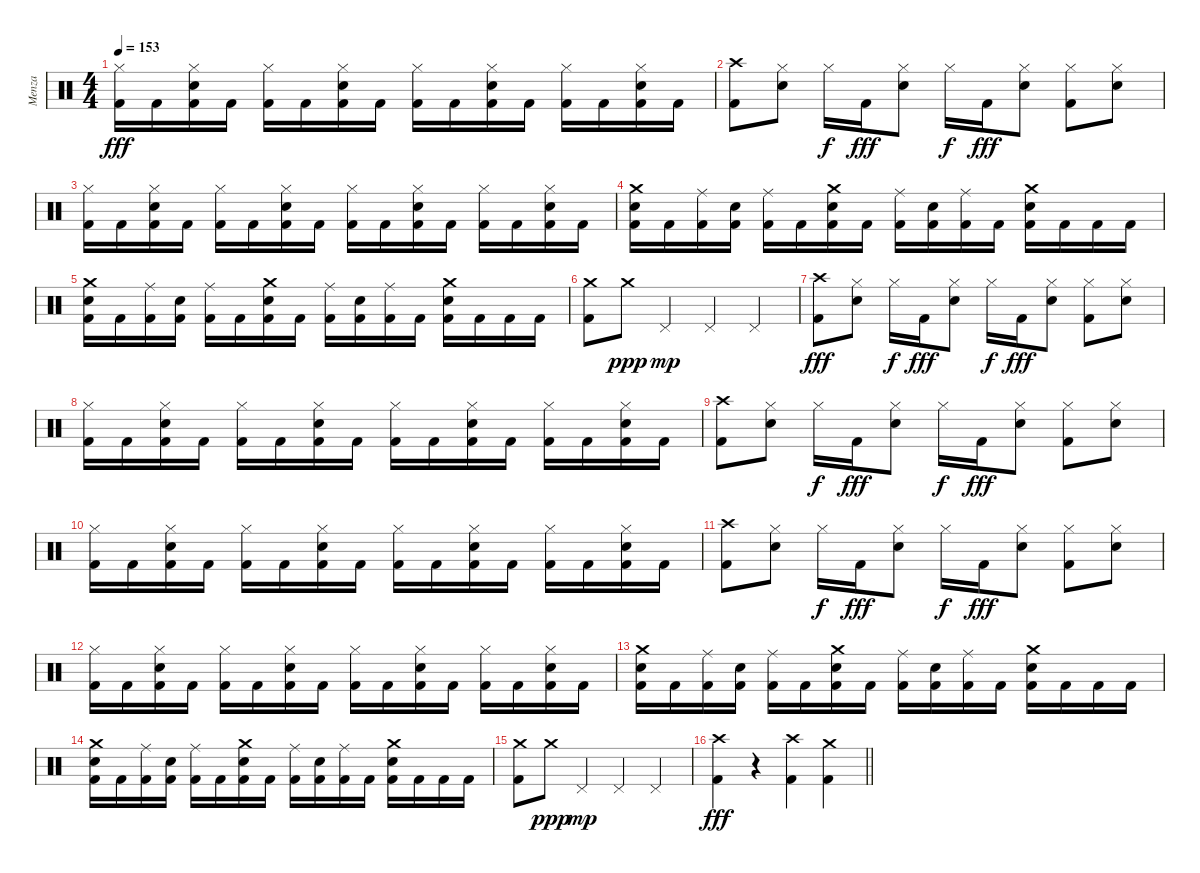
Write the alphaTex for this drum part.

\track ("Menza" "Menza") {instrument percussion}
\staff {score}
\articulation defaults
\ts (4 4)
\tempo 153
\clef neutral
\ks c
("Hi-Hat (closed)" "Kick (hit) 2").16{dy fff} "Kick (hit) 2".16 ("Hi-Hat (closed)" "Snare (hit) 2" "Kick (hit) 2").16 "Kick (hit) 2".16 ("Hi-Hat (closed)" "Kick (hit) 2").16 "Kick (hit) 2".16 ("Hi-Hat (closed)" "Snare (hit) 2" "Kick (hit) 2").16 "Kick (hit) 2".16 ("Hi-Hat (closed)" "Kick (hit) 2").16 "Kick (hit) 2".16 ("Hi-Hat (closed)" "Snare (hit) 2" "Kick (hit) 2").16 "Kick (hit) 2".16 ("Hi-Hat (closed)" "Kick (hit) 2").16 "Kick (hit) 2".16 ("Hi-Hat (closed)" "Snare (hit) 2" "Kick (hit) 2").16 "Kick (hit) 2".16 |
("Crash high (hit)" "Kick (hit) 2").8 ("Hi-Hat (closed)" "Snare (hit) 2").8 "Hi-Hat (closed)".16{dy f} "Kick (hit) 2".16{dy fff} ("Hi-Hat (closed)" "Snare (hit) 2").8 "Hi-Hat (closed)".16{dy f} "Kick (hit) 2".16{dy fff} ("Hi-Hat (closed)" "Snare (hit) 2").8 ("Hi-Hat (closed)" "Kick (hit) 2").8 ("Hi-Hat (closed)" "Snare (hit) 2").8 |
("Hi-Hat (closed)" "Kick (hit) 2").16 "Kick (hit) 2".16 ("Hi-Hat (closed)" "Snare (hit) 2" "Kick (hit) 2").16 "Kick (hit) 2".16 ("Hi-Hat (closed)" "Kick (hit) 2").16 "Kick (hit) 2".16 ("Hi-Hat (closed)" "Snare (hit) 2" "Kick (hit) 2").16 "Kick (hit) 2".16 ("Hi-Hat (closed)" "Kick (hit) 2").16 "Kick (hit) 2".16 ("Hi-Hat (closed)" "Snare (hit) 2" "Kick (hit) 2").16 "Kick (hit) 2".16 ("Hi-Hat (closed)" "Kick (hit) 2").16 "Kick (hit) 2".16 ("Hi-Hat (closed)" "Snare (hit) 2" "Kick (hit) 2").16 "Kick (hit) 2".16 |
("Crash medium (hit)" "Snare (hit) 2" "Kick (hit) 2").16 "Kick (hit) 2".16 ("Ride (middle)" "Kick (hit) 2").16 ("Snare (hit) 2" "Kick (hit) 2").16 ("Ride (middle)" "Kick (hit) 2").16 "Kick (hit) 2".16 ("Crash medium (hit)" "Snare (hit) 2" "Kick (hit) 2").16 "Kick (hit) 2".16 ("Ride (middle)" "Kick (hit) 2").16 ("Snare (hit) 2" "Kick (hit) 2").16 ("Ride (middle)" "Kick (hit) 2").16 "Kick (hit) 2".16 ("Crash medium (hit)" "Snare (hit) 2" "Kick (hit) 2").16 "Kick (hit) 2".16 "Kick (hit) 2".16 "Kick (hit) 2".16 |
("Crash medium (hit)" "Snare (hit) 2" "Kick (hit) 2").16 "Kick (hit) 2".16 ("Ride (middle)" "Kick (hit) 2").16 ("Snare (hit) 2" "Kick (hit) 2").16 ("Ride (middle)" "Kick (hit) 2").16 "Kick (hit) 2".16 ("Crash medium (hit)" "Snare (hit) 2" "Kick (hit) 2").16 "Kick (hit) 2".16 ("Ride (middle)" "Kick (hit) 2").16 ("Snare (hit) 2" "Kick (hit) 2").16 ("Ride (middle)" "Kick (hit) 2").16 "Kick (hit) 2".16 ("Crash medium (hit)" "Snare (hit) 2" "Kick (hit) 2").16 "Kick (hit) 2".16 "Kick (hit) 2".16 "Kick (hit) 2".16 |
("Crash medium (hit)" "Kick (hit) 2").8 "Crash medium (hit)".8{dy ppp} "Pedal Hi-Hat (hit)".4{dy mp} "Pedal Hi-Hat (hit)".4 "Pedal Hi-Hat (hit)".4 |
("Crash high (hit)" "Kick (hit) 2").8{dy fff} ("Hi-Hat (closed)" "Snare (hit) 2").8 "Hi-Hat (closed)".16{dy f} "Kick (hit) 2".16{dy fff} ("Hi-Hat (closed)" "Snare (hit) 2").8 "Hi-Hat (closed)".16{dy f} "Kick (hit) 2".16{dy fff} ("Hi-Hat (closed)" "Snare (hit) 2").8 ("Hi-Hat (closed)" "Kick (hit) 2").8 ("Hi-Hat (closed)" "Snare (hit) 2").8 |
("Hi-Hat (closed)" "Kick (hit) 2").16 "Kick (hit) 2".16 ("Hi-Hat (closed)" "Snare (hit) 2" "Kick (hit) 2").16 "Kick (hit) 2".16 ("Hi-Hat (closed)" "Kick (hit) 2").16 "Kick (hit) 2".16 ("Hi-Hat (closed)" "Snare (hit) 2" "Kick (hit) 2").16 "Kick (hit) 2".16 ("Hi-Hat (closed)" "Kick (hit) 2").16 "Kick (hit) 2".16 ("Hi-Hat (closed)" "Snare (hit) 2" "Kick (hit) 2").16 "Kick (hit) 2".16 ("Hi-Hat (closed)" "Kick (hit) 2").16 "Kick (hit) 2".16 ("Hi-Hat (closed)" "Snare (hit) 2" "Kick (hit) 2").16 "Kick (hit) 2".16 |
("Crash high (hit)" "Kick (hit) 2").8 ("Hi-Hat (closed)" "Snare (hit) 2").8 "Hi-Hat (closed)".16{dy f} "Kick (hit) 2".16{dy fff} ("Hi-Hat (closed)" "Snare (hit) 2").8 "Hi-Hat (closed)".16{dy f} "Kick (hit) 2".16{dy fff} ("Hi-Hat (closed)" "Snare (hit) 2").8 ("Hi-Hat (closed)" "Kick (hit) 2").8 ("Hi-Hat (closed)" "Snare (hit) 2").8 |
("Hi-Hat (closed)" "Kick (hit) 2").16 "Kick (hit) 2".16 ("Hi-Hat (closed)" "Snare (hit) 2" "Kick (hit) 2").16 "Kick (hit) 2".16 ("Hi-Hat (closed)" "Kick (hit) 2").16 "Kick (hit) 2".16 ("Hi-Hat (closed)" "Snare (hit) 2" "Kick (hit) 2").16 "Kick (hit) 2".16 ("Hi-Hat (closed)" "Kick (hit) 2").16 "Kick (hit) 2".16 ("Hi-Hat (closed)" "Snare (hit) 2" "Kick (hit) 2").16 "Kick (hit) 2".16 ("Hi-Hat (closed)" "Kick (hit) 2").16 "Kick (hit) 2".16 ("Hi-Hat (closed)" "Snare (hit) 2" "Kick (hit) 2").16 "Kick (hit) 2".16 |
("Crash high (hit)" "Kick (hit) 2").8 ("Hi-Hat (closed)" "Snare (hit) 2").8 "Hi-Hat (closed)".16{dy f} "Kick (hit) 2".16{dy fff} ("Hi-Hat (closed)" "Snare (hit) 2").8 "Hi-Hat (closed)".16{dy f} "Kick (hit) 2".16{dy fff} ("Hi-Hat (closed)" "Snare (hit) 2").8 ("Hi-Hat (closed)" "Kick (hit) 2").8 ("Hi-Hat (closed)" "Snare (hit) 2").8 |
("Hi-Hat (closed)" "Kick (hit) 2").16 "Kick (hit) 2".16 ("Hi-Hat (closed)" "Snare (hit) 2" "Kick (hit) 2").16 "Kick (hit) 2".16 ("Hi-Hat (closed)" "Kick (hit) 2").16 "Kick (hit) 2".16 ("Hi-Hat (closed)" "Snare (hit) 2" "Kick (hit) 2").16 "Kick (hit) 2".16 ("Hi-Hat (closed)" "Kick (hit) 2").16 "Kick (hit) 2".16 ("Hi-Hat (closed)" "Snare (hit) 2" "Kick (hit) 2").16 "Kick (hit) 2".16 ("Hi-Hat (closed)" "Kick (hit) 2").16 "Kick (hit) 2".16 ("Hi-Hat (closed)" "Snare (hit) 2" "Kick (hit) 2").16 "Kick (hit) 2".16 |
("Crash medium (hit)" "Snare (hit) 2" "Kick (hit) 2").16 "Kick (hit) 2".16 ("Ride (middle)" "Kick (hit) 2").16 ("Snare (hit) 2" "Kick (hit) 2").16 ("Ride (middle)" "Kick (hit) 2").16 "Kick (hit) 2".16 ("Crash medium (hit)" "Snare (hit) 2" "Kick (hit) 2").16 "Kick (hit) 2".16 ("Ride (middle)" "Kick (hit) 2").16 ("Snare (hit) 2" "Kick (hit) 2").16 ("Ride (middle)" "Kick (hit) 2").16 "Kick (hit) 2".16 ("Crash medium (hit)" "Snare (hit) 2" "Kick (hit) 2").16 "Kick (hit) 2".16 "Kick (hit) 2".16 "Kick (hit) 2".16 |
("Crash medium (hit)" "Snare (hit) 2" "Kick (hit) 2").16 "Kick (hit) 2".16 ("Ride (middle)" "Kick (hit) 2").16 ("Snare (hit) 2" "Kick (hit) 2").16 ("Ride (middle)" "Kick (hit) 2").16 "Kick (hit) 2".16 ("Crash medium (hit)" "Snare (hit) 2" "Kick (hit) 2").16 "Kick (hit) 2".16 ("Ride (middle)" "Kick (hit) 2").16 ("Snare (hit) 2" "Kick (hit) 2").16 ("Ride (middle)" "Kick (hit) 2").16 "Kick (hit) 2".16 ("Crash medium (hit)" "Snare (hit) 2" "Kick (hit) 2").16 "Kick (hit) 2".16 "Kick (hit) 2".16 "Kick (hit) 2".16 |
("Crash medium (hit)" "Kick (hit) 2").8 "Crash medium (hit)".8{dy ppp} "Pedal Hi-Hat (hit)".4{dy mp} "Pedal Hi-Hat (hit)".4 "Pedal Hi-Hat (hit)".4 |
\barLineRight lightlight
("Crash high (hit)" "Kick (hit) 2").4{dy fff} r.4 ("Crash high (hit)" "Kick (hit) 2").4 ("Crash medium (hit)" "Kick (hit) 2").4
